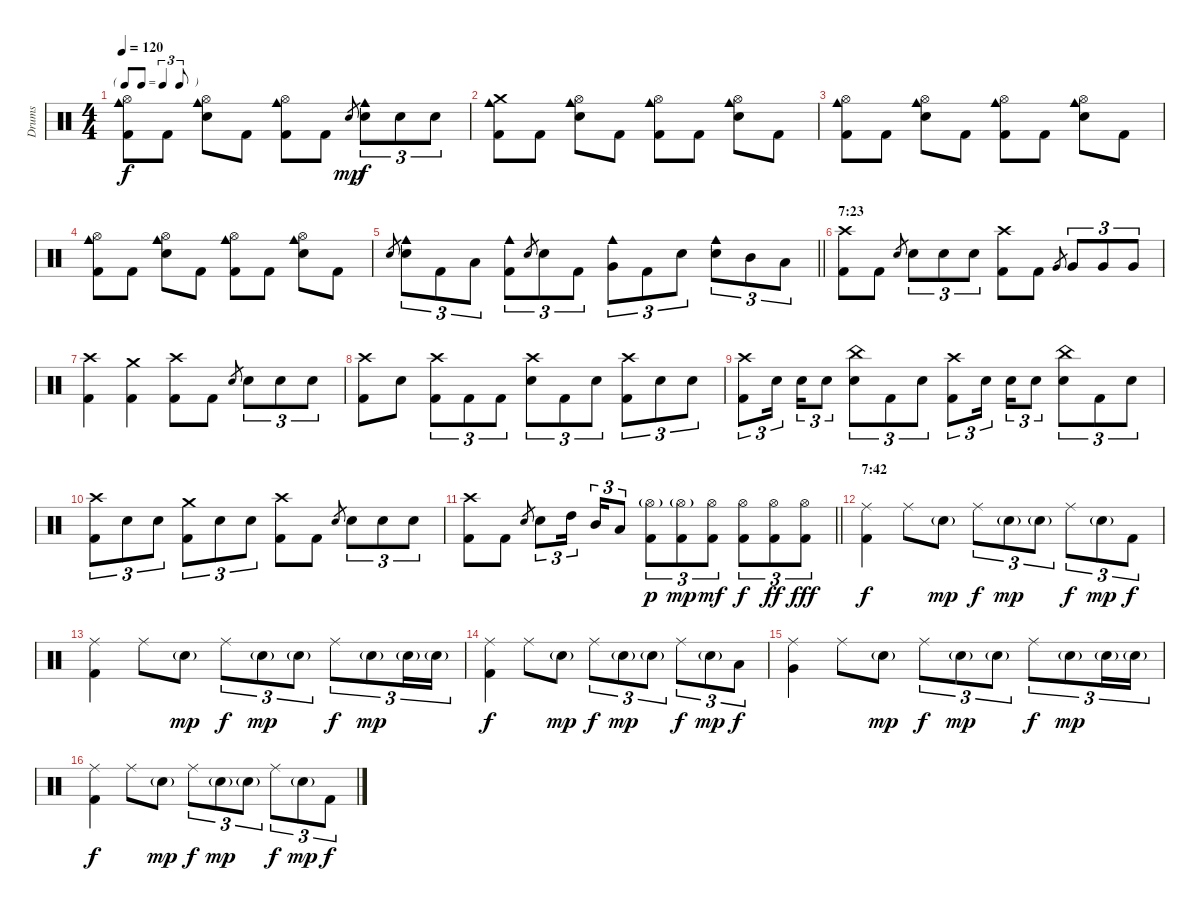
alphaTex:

\track ("Drums" "Drums") {instrument percussion}
\staff {score}
\articulation defaults
\ts (4 4)
\tf triplet8th
\tempo 120
\clef neutral
\ks c
("Hi-Hat (open)" "Cowbell medium (hit)" "Kick (hit) 2").8{dy f} "Kick (hit) 2".8 ("Hi-Hat (open)" "Cowbell medium (hit)" "Electric Snare (hit)").8 "Kick (hit) 2".8 ("Hi-Hat (open)" "Cowbell medium (hit)" "Kick (hit) 2").8 "Kick (hit) 2".8 "Electric Snare (hit)".8{gr dy mp} ("Cowbell medium (hit)" "Electric Snare (hit)").8{tu (3 2) dy f} "Electric Snare (hit)".8{tu (3 2)} "Electric Snare (hit)".8{tu (3 2)} |
("Crash medium (hit)" "Cowbell medium (hit)" "Kick (hit) 2").8 "Kick (hit) 2".8 ("Hi-Hat (open)" "Cowbell medium (hit)" "Electric Snare (hit)").8 "Kick (hit) 2".8 ("Hi-Hat (open)" "Cowbell medium (hit)" "Kick (hit) 2").8 "Kick (hit) 2".8 ("Hi-Hat (open)" "Cowbell medium (hit)" "Electric Snare (hit)").8 "Kick (hit) 2".8 |
("Hi-Hat (open)" "Cowbell medium (hit)" "Kick (hit) 2").8 "Kick (hit) 2".8 ("Hi-Hat (open)" "Cowbell medium (hit)" "Electric Snare (hit)").8 "Kick (hit) 2".8 ("Hi-Hat (open)" "Cowbell medium (hit)" "Kick (hit) 2").8 "Kick (hit) 2".8 ("Hi-Hat (open)" "Cowbell medium (hit)" "Electric Snare (hit)").8 "Kick (hit) 2".8 |
("Hi-Hat (open)" "Cowbell medium (hit)" "Kick (hit) 2").8 "Kick (hit) 2".8 ("Hi-Hat (open)" "Cowbell medium (hit)" "Electric Snare (hit)").8 "Kick (hit) 2".8 ("Hi-Hat (open)" "Cowbell medium (hit)" "Kick (hit) 2").8 "Kick (hit) 2".8 ("Hi-Hat (open)" "Cowbell medium (hit)" "Electric Snare (hit)").8 "Kick (hit) 2".8 |
\barLineRight lightlight "Electric Snare (hit)".8{gr}
("Cowbell medium (hit)" "Electric Snare (hit)").8{tu (3 2)} "Kick (hit) 2".8{tu (3 2)} "Low Tom (hit)".8{tu (3 2)} ("Cowbell medium (hit)" "Kick (hit) 2").8{tu (3 2)} "Electric Snare (hit)".8{gr} "Electric Snare (hit)".8{tu (3 2)} "Kick (hit) 2".8{tu (3 2)} ("Cowbell medium (hit)" "Very Low Tom (hit)").8{tu (3 2)} "Kick (hit) 2".8{tu (3 2)} "Electric Snare (hit)".8{tu (3 2)} ("Cowbell medium (hit)" "Electric Snare (hit)").8{tu (3 2)} "Mid Tom (hit)".8{tu (3 2)} "Low Tom (hit)".8{tu (3 2)} |
\section ("" "7:23")
("Crash high (hit)" "Kick (hit) 2").8 "Kick (hit) 2".8 "Electric Snare (hit)".8{gr} "Electric Snare (hit)".8{tu (3 2)} "Electric Snare (hit)".8{tu (3 2)} "Electric Snare (hit)".8{tu (3 2)} ("Crash high (hit)" "Kick (hit) 2").8 "Kick (hit) 2".8 "Very Low Tom (hit)".8{gr} "Very Low Tom (hit)".8{tu (3 2)} "Very Low Tom (hit)".8{tu (3 2)} "Very Low Tom (hit)".8{tu (3 2)} |
("Crash high (hit)" "Kick (hit) 2").4 ("Crash medium (hit)" "Kick (hit) 2").4 ("Crash high (hit)" "Kick (hit) 2").8 "Kick (hit) 2".8 "Electric Snare (hit)".8{gr} "Electric Snare (hit)".8{tu (3 2)} "Electric Snare (hit)".8{tu (3 2)} "Electric Snare (hit)".8{tu (3 2)} |
("Crash high (hit)" "Kick (hit) 2").8 "Electric Snare (hit)".8 ("Crash high (hit)" "Kick (hit) 2").8{tu (3 2)} "Kick (hit) 2".8{tu (3 2)} "Kick (hit) 2".8{tu (3 2)} ("Crash high (hit)" "Electric Snare (hit)").8{tu (3 2)} "Kick (hit) 2".8{tu (3 2)} "Electric Snare (hit)".8{tu (3 2)} ("Crash high (hit)" "Kick (hit) 2").8{tu (3 2)} "Electric Snare (hit)".8{tu (3 2)} "Electric Snare (hit)".8{tu (3 2)} |
("Crash high (hit)" "Kick (hit) 2").8{tu (3 2)} "Electric Snare (hit)".16{tu (3 2)} "Electric Snare (hit)".16{tu (3 2)} "Electric Snare (hit)".8{tu (3 2)} ("China (hit)" "Electric Snare (hit)").8{tu (3 2)} "Kick (hit) 2".8{tu (3 2)} "Electric Snare (hit)".8{tu (3 2)} ("Crash high (hit)" "Kick (hit) 2").8{tu (3 2)} "Electric Snare (hit)".16{tu (3 2)} "Electric Snare (hit)".16{tu (3 2)} "Electric Snare (hit)".8{tu (3 2)} ("China (hit)" "Electric Snare (hit)").8{tu (3 2)} "Kick (hit) 2".8{tu (3 2)} "Electric Snare (hit)".8{tu (3 2)} |
("Crash high (hit)" "Kick (hit) 2").8{tu (3 2)} "Electric Snare (hit)".8{tu (3 2)} "Electric Snare (hit)".8{tu (3 2)} ("Crash medium (hit)" "Kick (hit) 2").8{tu (3 2)} "Electric Snare (hit)".8{tu (3 2)} "Electric Snare (hit)".8{tu (3 2)} ("Crash high (hit)" "Kick (hit) 2").8 "Kick (hit) 2".8 "Electric Snare (hit)".8{gr} "Electric Snare (hit)".8{tu (3 2)} "Electric Snare (hit)".8{tu (3 2)} "Electric Snare (hit)".8{tu (3 2)} |
\barLineRight lightlight
("Crash high (hit)" "Kick (hit) 2").8 "Kick (hit) 2".8 "Electric Snare (hit)".8{gr} "Electric Snare (hit)".8{tu (3 2)} "High Tom (hit)".16{tu (3 2)} "Mid Tom (hit)".16{tu (3 2)} "Low Tom (hit)".8{tu (3 2)} ("Hi-Hat (open)"{g} "Kick (hit) 2").8{tu (3 2) dy p} ("Hi-Hat (open)"{g} "Kick (hit) 2").8{tu (3 2) dy mp} ("Hi-Hat (open)" "Kick (hit) 2").8{tu (3 2) dy mf} ("Hi-Hat (open)" "Kick (hit) 2").8{tu (3 2) dy f} ("Hi-Hat (open)" "Kick (hit) 2").8{tu (3 2) dy ff} ("Hi-Hat (open)" "Kick (hit) 2").8{tu (3 2) dy fff} |
\section ("" "7:42")
("Ride (middle)" "Kick (hit) 2").4{dy f} "Ride (middle)".8 "Snare (hit) 2"{g}.8{dy mp} "Ride (middle)".8{tu (3 2) dy f} "Snare (hit) 2"{g}.8{tu (3 2) dy mp} "Snare (hit) 2"{g}.8{tu (3 2)} "Ride (middle)".8{tu (3 2) dy f} "Snare (hit) 2"{g}.8{tu (3 2) dy mp} "Kick (hit) 2".8{tu (3 2) dy f} |
("Ride (middle)" "Kick (hit) 2").4 "Ride (middle)".8 "Snare (hit) 2"{g}.8{dy mp} "Ride (middle)".8{tu (3 2) dy f} "Snare (hit) 2"{g}.8{tu (3 2) dy mp} "Snare (hit) 2"{g}.8{tu (3 2)} "Ride (middle)".8{tu (3 2) dy f} "Snare (hit) 2"{g}.8{tu (3 2) dy mp} "Snare (hit) 2"{g}.16{tu (3 2)} "Snare (hit) 2"{g}.16{tu (3 2)} |
("Ride (middle)" "Kick (hit) 2").4{dy f} "Ride (middle)".8 "Snare (hit) 2"{g}.8{dy mp} "Ride (middle)".8{tu (3 2) dy f} "Snare (hit) 2"{g}.8{tu (3 2) dy mp} "Snare (hit) 2"{g}.8{tu (3 2)} "Ride (middle)".8{tu (3 2) dy f} "Snare (hit) 2"{g}.8{tu (3 2) dy mp} "Low Tom (hit)".8{tu (3 2) dy f} |
("Ride (middle)" "Very Low Tom (hit)").4 "Ride (middle)".8 "Snare (hit) 2"{g}.8{dy mp} "Ride (middle)".8{tu (3 2) dy f} "Snare (hit) 2"{g}.8{tu (3 2) dy mp} "Snare (hit) 2"{g}.8{tu (3 2)} "Ride (middle)".8{tu (3 2) dy f} "Snare (hit) 2"{g}.8{tu (3 2) dy mp} "Snare (hit) 2"{g}.16{tu (3 2)} "Snare (hit) 2"{g}.16{tu (3 2)} |
("Ride (middle)" "Kick (hit) 2").4{dy f} "Ride (middle)".8 "Snare (hit) 2"{g}.8{dy mp} "Ride (middle)".8{tu (3 2) dy f} "Snare (hit) 2"{g}.8{tu (3 2) dy mp} "Snare (hit) 2"{g}.8{tu (3 2)} "Ride (middle)".8{tu (3 2) dy f} "Snare (hit) 2"{g}.8{tu (3 2) dy mp} "Kick (hit) 2".8{tu (3 2) dy f}
